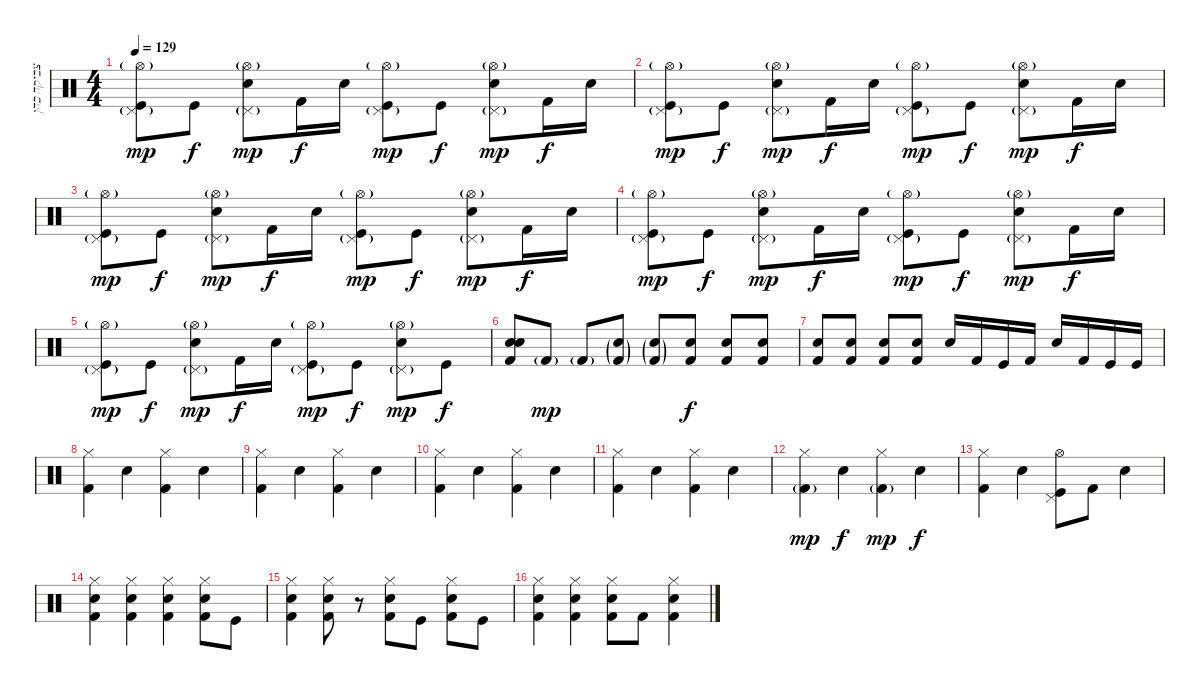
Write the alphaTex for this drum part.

\track ("צביקה כהן - תופים" "צביקה כהן ") {instrument percussion}
\staff {score}
\articulation defaults
\ts (4 4)
\tempo 129
\clef neutral
\ks c
("Hi-Hat (open)"{g} "Kick (hit)" "Pedal Hi-Hat (hit)"{g}).8{dy mp} "Kick (hit)".8{dy f} ("Hi-Hat (open)"{g} "Electric Snare (hit)" "Pedal Hi-Hat (hit)"{g}).8{dy mp} "Kick (hit) 2".16{dy f} "Electric Snare (hit)".16 ("Hi-Hat (open)"{g} "Kick (hit)" "Pedal Hi-Hat (hit)"{g}).8{dy mp} "Kick (hit)".8{dy f} ("Hi-Hat (open)"{g} "Electric Snare (hit)" "Pedal Hi-Hat (hit)"{g}).8{dy mp} "Kick (hit) 2".16{dy f} "Electric Snare (hit)".16 |
("Hi-Hat (open)"{g} "Kick (hit)" "Pedal Hi-Hat (hit)"{g}).8{dy mp} "Kick (hit)".8{dy f} ("Hi-Hat (open)"{g} "Electric Snare (hit)" "Pedal Hi-Hat (hit)"{g}).8{dy mp} "Kick (hit) 2".16{dy f} "Electric Snare (hit)".16 ("Hi-Hat (open)"{g} "Kick (hit)" "Pedal Hi-Hat (hit)"{g}).8{dy mp} "Kick (hit)".8{dy f} ("Hi-Hat (open)"{g} "Electric Snare (hit)" "Pedal Hi-Hat (hit)"{g}).8{dy mp} "Kick (hit) 2".16{dy f} "Electric Snare (hit)".16 |
("Hi-Hat (open)"{g} "Kick (hit)" "Pedal Hi-Hat (hit)"{g}).8{dy mp} "Kick (hit)".8{dy f} ("Hi-Hat (open)"{g} "Electric Snare (hit)" "Pedal Hi-Hat (hit)"{g}).8{dy mp} "Kick (hit) 2".16{dy f} "Electric Snare (hit)".16 ("Hi-Hat (open)"{g} "Kick (hit)" "Pedal Hi-Hat (hit)"{g}).8{dy mp} "Kick (hit)".8{dy f} ("Hi-Hat (open)"{g} "Electric Snare (hit)" "Pedal Hi-Hat (hit)"{g}).8{dy mp} "Kick (hit) 2".16{dy f} "Electric Snare (hit)".16 |
("Hi-Hat (open)"{g} "Kick (hit)" "Pedal Hi-Hat (hit)"{g}).8{dy mp} "Kick (hit)".8{dy f} ("Hi-Hat (open)"{g} "Electric Snare (hit)" "Pedal Hi-Hat (hit)"{g}).8{dy mp} "Kick (hit) 2".16{dy f} "Electric Snare (hit)".16 ("Hi-Hat (open)"{g} "Kick (hit)" "Pedal Hi-Hat (hit)"{g}).8{dy mp} "Kick (hit)".8{dy f} ("Hi-Hat (open)"{g} "Electric Snare (hit)" "Pedal Hi-Hat (hit)"{g}).8{dy mp} "Kick (hit) 2".16{dy f} "Electric Snare (hit)".16 |
("Hi-Hat (open)"{g} "Kick (hit)" "Pedal Hi-Hat (hit)"{g}).8{dy mp} "Kick (hit)".8{dy f} ("Hi-Hat (open)"{g} "Electric Snare (hit)" "Pedal Hi-Hat (hit)"{g}).8{dy mp} "Kick (hit) 2".16{dy f} "Electric Snare (hit)".16 ("Hi-Hat (open)"{g} "Kick (hit)" "Pedal Hi-Hat (hit)"{g}).8{dy mp} "Kick (hit)".8{dy f} ("Hi-Hat (open)"{g} "Electric Snare (hit)" "Pedal Hi-Hat (hit)"{g}).8{dy mp} "Kick (hit)".8{dy f} |
("Electric Snare (hit)" "Snare (hit) 2" "Kick (hit) 2").8 "Kick (hit) 2"{g}.8{dy mp} "Kick (hit) 2"{g}.8 ("Electric Snare (hit)"{g} "Kick (hit) 2"{g}).8 ("Electric Snare (hit)"{g} "Kick (hit) 2"{g}).8 ("Electric Snare (hit)" "Kick (hit) 2").8{dy f} ("Electric Snare (hit)" "Kick (hit) 2").8 ("Electric Snare (hit)" "Kick (hit) 2").8 |
("Electric Snare (hit)" "Kick (hit) 2").8 ("Electric Snare (hit)" "Kick (hit) 2").8 ("Electric Snare (hit)" "Kick (hit) 2").8 ("Electric Snare (hit)" "Kick (hit) 2").8 "Electric Snare (hit)".16 "Kick (hit) 2".16 "Kick (hit)".16 "Kick (hit) 2".16 "Electric Snare (hit)".16 "Kick (hit) 2".16 "Kick (hit)".16 "Kick (hit)".16 |
("Kick (hit) 2" "Hi-Hat (closed)").4 "Electric Snare (hit)".4 ("Kick (hit) 2" "Hi-Hat (closed)").4 "Electric Snare (hit)".4 |
("Kick (hit) 2" "Hi-Hat (closed)").4 "Electric Snare (hit)".4 ("Kick (hit) 2" "Hi-Hat (closed)").4 "Electric Snare (hit)".4 |
("Kick (hit) 2" "Hi-Hat (closed)").4 "Electric Snare (hit)".4 ("Kick (hit) 2" "Hi-Hat (closed)").4 "Electric Snare (hit)".4 |
("Kick (hit) 2" "Hi-Hat (closed)").4 "Electric Snare (hit)".4 ("Kick (hit) 2" "Hi-Hat (closed)").4 "Electric Snare (hit)".4 |
("Kick (hit) 2"{g} "Hi-Hat (closed)").4{dy mp} "Electric Snare (hit)".4{dy f} ("Kick (hit) 2"{g} "Hi-Hat (closed)").4{dy mp} "Electric Snare (hit)".4{dy f} |
("Kick (hit) 2" "Hi-Hat (closed)").4 "Electric Snare (hit)".4 ("Pedal Hi-Hat (hit)" "Kick (hit)" "Hi-Hat (open)").8 "Kick (hit) 2".8 "Electric Snare (hit)".4 |
("Hi-Hat (closed)" "Electric Snare (hit)" "Kick (hit) 2").4 ("Hi-Hat (closed)" "Electric Snare (hit)" "Kick (hit) 2").4 ("Hi-Hat (closed)" "Electric Snare (hit)" "Kick (hit) 2").4 ("Hi-Hat (closed)" "Electric Snare (hit)" "Kick (hit) 2").8 "Kick (hit)".8 |
("Hi-Hat (closed)" "Electric Snare (hit)" "Kick (hit) 2").4 ("Hi-Hat (closed)" "Electric Snare (hit)" "Kick (hit) 2").8 r.8 ("Hi-Hat (closed)" "Electric Snare (hit)" "Kick (hit) 2").8 "Kick (hit)".8 ("Hi-Hat (closed)" "Electric Snare (hit)" "Kick (hit) 2").8 "Kick (hit)".8 |
("Hi-Hat (closed)" "Electric Snare (hit)" "Kick (hit) 2").4 ("Hi-Hat (closed)" "Electric Snare (hit)" "Kick (hit) 2").4 ("Hi-Hat (closed)" "Electric Snare (hit)" "Kick (hit) 2").8 "Kick (hit) 2".8 ("Hi-Hat (closed)" "Electric Snare (hit)" "Kick (hit) 2").4
